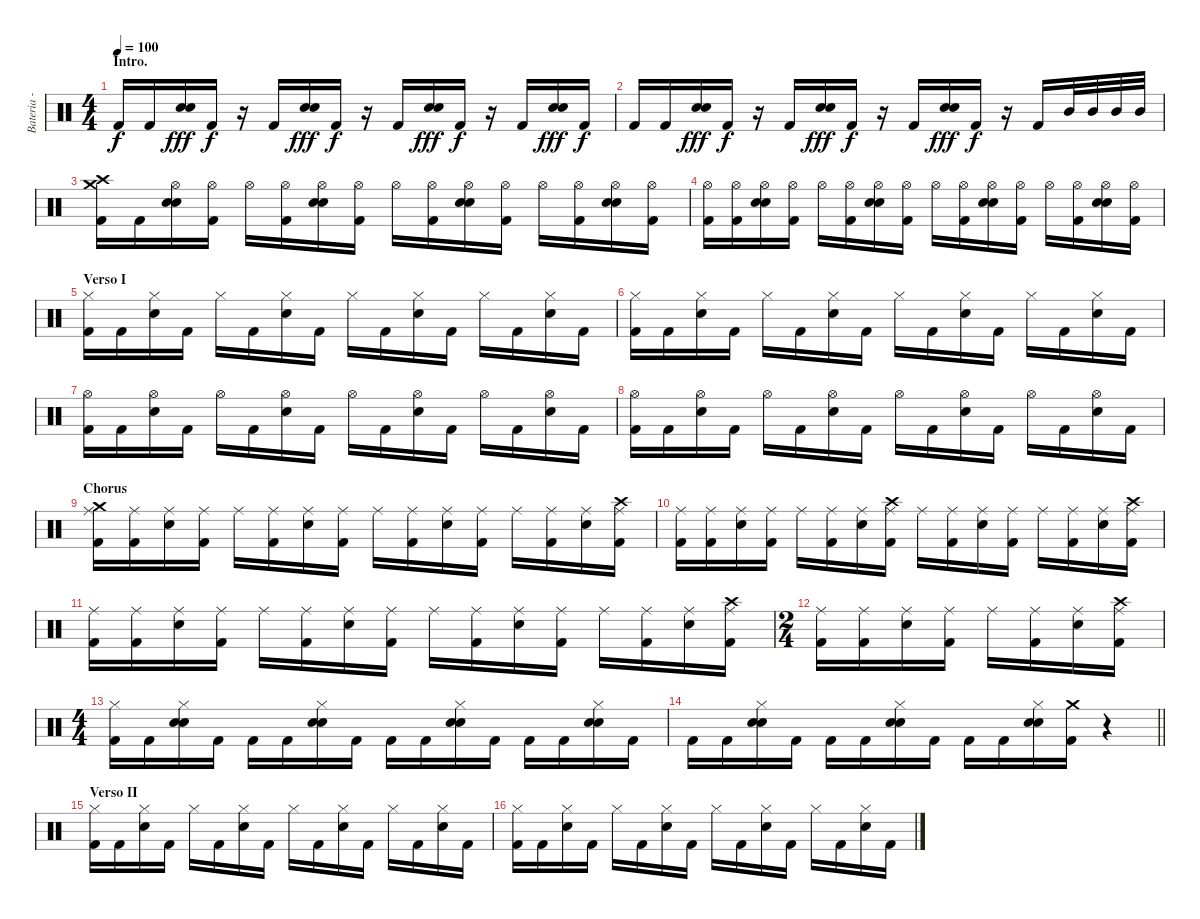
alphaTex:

\track ("Bateria - Frederik Larzon" "Bateria - ") {instrument percussion}
\staff {score}
\articulation defaults
\ts (4 4)
\section ("" "Intro.")
\tempo 100
\clef neutral
\ks c "Kick (hit) 2".16{dy f} "Kick (hit) 2".16
("Snare (hit) 2" "Electric Snare (hit)").16{dy fff} "Kick (hit) 2".16{dy f} r.16 "Kick (hit) 2".16 ("Snare (hit) 2" "Electric Snare (hit)").16{dy fff} "Kick (hit) 2".16{dy f} r.16 "Kick (hit) 2".16 ("Snare (hit) 2" "Electric Snare (hit)").16{dy fff} "Kick (hit) 2".16{dy f} r.16 "Kick (hit) 2".16 ("Snare (hit) 2" "Electric Snare (hit)").16{dy fff} "Kick (hit) 2".16{dy f} |
"Kick (hit) 2".16 "Kick (hit) 2".16 ("Snare (hit) 2" "Electric Snare (hit)").16{dy fff} "Kick (hit) 2".16{dy f} r.16 "Kick (hit) 2".16 ("Snare (hit) 2" "Electric Snare (hit)").16{dy fff} "Kick (hit) 2".16{dy f} r.16 "Kick (hit) 2".16 ("Snare (hit) 2" "Electric Snare (hit)").16{dy fff} "Kick (hit) 2".16{dy f} r.16 "Kick (hit) 2".16 "Mid Tom (hit)".32 "Mid Tom (hit)".32 "Mid Tom (hit)".32 "Mid Tom (hit)".32 |
("Kick (hit) 2" "Crash medium (hit)" "Crash high (hit)").16 "Kick (hit) 2".16 ("Snare (hit) 2" "Electric Snare (hit)" "Hi-Hat (open)").16 ("Kick (hit) 2" "Hi-Hat (open)").16 "Hi-Hat (open)".16 ("Kick (hit) 2" "Hi-Hat (open)").16 ("Snare (hit) 2" "Electric Snare (hit)" "Hi-Hat (open)").16 ("Kick (hit) 2" "Hi-Hat (open)").16 "Hi-Hat (open)".16 ("Kick (hit) 2" "Hi-Hat (open)").16 ("Snare (hit) 2" "Electric Snare (hit)" "Hi-Hat (open)").16 ("Kick (hit) 2" "Hi-Hat (open)").16 "Hi-Hat (open)".16 ("Kick (hit) 2" "Hi-Hat (open)").16 ("Snare (hit) 2" "Electric Snare (hit)" "Hi-Hat (open)").16 ("Kick (hit) 2" "Hi-Hat (open)").16 |
("Kick (hit) 2" "Hi-Hat (open)").16 ("Kick (hit) 2" "Hi-Hat (open)").16 ("Snare (hit) 2" "Electric Snare (hit)" "Hi-Hat (open)").16 ("Kick (hit) 2" "Hi-Hat (open)").16 "Hi-Hat (open)".16 ("Kick (hit) 2" "Hi-Hat (open)").16 ("Snare (hit) 2" "Electric Snare (hit)" "Hi-Hat (open)").16 ("Kick (hit) 2" "Hi-Hat (open)").16 "Hi-Hat (open)".16 ("Kick (hit) 2" "Hi-Hat (open)").16 ("Snare (hit) 2" "Electric Snare (hit)" "Hi-Hat (open)").16 ("Kick (hit) 2" "Hi-Hat (open)").16 "Hi-Hat (open)".16 ("Kick (hit) 2" "Hi-Hat (open)").16 ("Snare (hit) 2" "Electric Snare (hit)" "Hi-Hat (open)").16 ("Kick (hit) 2" "Hi-Hat (open)").16 |
\section ("" "Verso I")
("Kick (hit) 2" "Hi-Hat (closed)").16 "Kick (hit) 2".16 ("Snare (hit) 2" "Hi-Hat (closed)").16 "Kick (hit) 2".16 "Hi-Hat (closed)".16 "Kick (hit) 2".16 ("Snare (hit) 2" "Hi-Hat (closed)").16 "Kick (hit) 2".16 "Hi-Hat (closed)".16 "Kick (hit) 2".16 ("Snare (hit) 2" "Hi-Hat (closed)").16 "Kick (hit) 2".16 "Hi-Hat (closed)".16 "Kick (hit) 2".16 ("Snare (hit) 2" "Hi-Hat (closed)").16 "Kick (hit) 2".16 |
("Kick (hit) 2" "Hi-Hat (closed)").16 "Kick (hit) 2".16 ("Snare (hit) 2" "Hi-Hat (closed)").16 "Kick (hit) 2".16 "Hi-Hat (closed)".16 "Kick (hit) 2".16 ("Snare (hit) 2" "Hi-Hat (closed)").16 "Kick (hit) 2".16 "Hi-Hat (closed)".16 "Kick (hit) 2".16 ("Snare (hit) 2" "Hi-Hat (closed)").16 "Kick (hit) 2".16 "Hi-Hat (closed)".16 "Kick (hit) 2".16 ("Snare (hit) 2" "Hi-Hat (closed)").16 "Kick (hit) 2".16 |
("Kick (hit) 2" "Hi-Hat (open)").16 "Kick (hit) 2".16 ("Snare (hit) 2" "Hi-Hat (open)").16 "Kick (hit) 2".16 "Hi-Hat (open)".16 "Kick (hit) 2".16 ("Snare (hit) 2" "Hi-Hat (open)").16 "Kick (hit) 2".16 "Hi-Hat (open)".16 "Kick (hit) 2".16 ("Snare (hit) 2" "Hi-Hat (open)").16 "Kick (hit) 2".16 "Hi-Hat (open)".16 "Kick (hit) 2".16 ("Snare (hit) 2" "Hi-Hat (open)").16 "Kick (hit) 2".16 |
("Kick (hit) 2" "Hi-Hat (open)").16 "Kick (hit) 2".16 ("Snare (hit) 2" "Hi-Hat (open)").16 "Kick (hit) 2".16 "Hi-Hat (open)".16 "Kick (hit) 2".16 ("Snare (hit) 2" "Hi-Hat (open)").16 "Kick (hit) 2".16 "Hi-Hat (open)".16 "Kick (hit) 2".16 ("Snare (hit) 2" "Hi-Hat (open)").16 "Kick (hit) 2".16 "Hi-Hat (open)".16 "Kick (hit) 2".16 ("Snare (hit) 2" "Hi-Hat (open)").16 "Kick (hit) 2".16 |
\section ("" "Chorus")
("Kick (hit) 2" "Crash medium (hit)" "Ride (middle)").16 ("Kick (hit) 2" "Ride (middle)").16 ("Snare (hit) 2" "Ride (middle)").16 ("Kick (hit) 2" "Ride (middle)").16 "Ride (middle)".16 ("Kick (hit) 2" "Ride (middle)").16 ("Snare (hit) 2" "Ride (middle)").16 ("Kick (hit) 2" "Ride (middle)").16 "Ride (middle)".16 ("Kick (hit) 2" "Ride (middle)").16 ("Snare (hit) 2" "Ride (middle)").16 ("Kick (hit) 2" "Ride (middle)").16 "Ride (middle)".16 ("Kick (hit) 2" "Ride (middle)").16 ("Snare (hit) 2" "Ride (middle)").16 ("Kick (hit) 2" "Crash high (hit)" "Ride (middle)").16 |
("Kick (hit) 2" "Ride (middle)").16 ("Kick (hit) 2" "Ride (middle)").16 ("Snare (hit) 2" "Ride (middle)").16 ("Kick (hit) 2" "Ride (middle)").16 "Ride (middle)".16 ("Kick (hit) 2" "Ride (middle)").16 ("Snare (hit) 2" "Ride (middle)").16 ("Kick (hit) 2" "Crash high (hit)" "Ride (middle)").16 "Ride (middle)".16 ("Kick (hit) 2" "Ride (middle)").16 ("Snare (hit) 2" "Ride (middle)").16 ("Kick (hit) 2" "Ride (middle)").16 "Ride (middle)".16 ("Kick (hit) 2" "Ride (middle)").16 ("Snare (hit) 2" "Ride (middle)").16 ("Kick (hit) 2" "Crash high (hit)" "Ride (middle)").16 |
("Kick (hit) 2" "Ride (middle)").16 ("Kick (hit) 2" "Ride (middle)").16 ("Snare (hit) 2" "Ride (middle)").16 ("Kick (hit) 2" "Ride (middle)").16 "Ride (middle)".16 ("Kick (hit) 2" "Ride (middle)").16 ("Snare (hit) 2" "Ride (middle)").16 ("Kick (hit) 2" "Ride (middle)").16 "Ride (middle)".16 ("Kick (hit) 2" "Ride (middle)").16 ("Snare (hit) 2" "Ride (middle)").16 ("Kick (hit) 2" "Ride (middle)").16 "Ride (middle)".16 ("Kick (hit) 2" "Ride (middle)").16 ("Snare (hit) 2" "Ride (middle)").16 ("Kick (hit) 2" "Crash high (hit)" "Ride (middle)").16 |
\ts (2 4)
("Kick (hit) 2" "Ride (middle)").16 ("Kick (hit) 2" "Ride (middle)").16 ("Snare (hit) 2" "Ride (middle)").16 ("Kick (hit) 2" "Ride (middle)").16 "Ride (middle)".16 ("Kick (hit) 2" "Ride (middle)").16 ("Snare (hit) 2" "Ride (middle)").16 ("Kick (hit) 2" "Crash high (hit)" "Ride (middle)").16 |
\ts (4 4)
("Kick (hit) 2" "Hi-Hat (closed)").16 "Kick (hit) 2".16 ("Snare (hit) 2" "Electric Snare (hit)" "Hi-Hat (closed)").16 "Kick (hit) 2".16 "Kick (hit) 2".16 "Kick (hit) 2".16 ("Snare (hit) 2" "Electric Snare (hit)" "Hi-Hat (closed)").16 "Kick (hit) 2".16 "Kick (hit) 2".16 "Kick (hit) 2".16 ("Snare (hit) 2" "Electric Snare (hit)" "Hi-Hat (closed)").16 "Kick (hit) 2".16 "Kick (hit) 2".16 "Kick (hit) 2".16 ("Snare (hit) 2" "Electric Snare (hit)" "Hi-Hat (closed)").16 "Kick (hit) 2".16 |
\barLineRight lightlight "Kick (hit) 2".16 "Kick (hit) 2".16
("Snare (hit) 2" "Electric Snare (hit)" "Hi-Hat (closed)").16 "Kick (hit) 2".16 "Kick (hit) 2".16 "Kick (hit) 2".16 ("Snare (hit) 2" "Electric Snare (hit)" "Hi-Hat (closed)").16 "Kick (hit) 2".16 "Kick (hit) 2".16 "Kick (hit) 2".16 ("Snare (hit) 2" "Electric Snare (hit)" "Hi-Hat (closed)").16 ("Kick (hit) 2" "Crash medium (hit)").16 r.4 |
\section ("" "Verso II")
("Kick (hit) 2" "Hi-Hat (closed)").16 "Kick (hit) 2".16 ("Snare (hit) 2" "Hi-Hat (closed)").16 "Kick (hit) 2".16 "Hi-Hat (closed)".16 "Kick (hit) 2".16 ("Snare (hit) 2" "Hi-Hat (closed)").16 "Kick (hit) 2".16 "Hi-Hat (closed)".16 "Kick (hit) 2".16 ("Snare (hit) 2" "Hi-Hat (closed)").16 "Kick (hit) 2".16 "Hi-Hat (closed)".16 "Kick (hit) 2".16 ("Snare (hit) 2" "Hi-Hat (closed)").16 "Kick (hit) 2".16 |
("Kick (hit) 2" "Hi-Hat (closed)").16 "Kick (hit) 2".16 ("Snare (hit) 2" "Hi-Hat (closed)").16 "Kick (hit) 2".16 "Hi-Hat (closed)".16 "Kick (hit) 2".16 ("Snare (hit) 2" "Hi-Hat (closed)").16 "Kick (hit) 2".16 "Hi-Hat (closed)".16 "Kick (hit) 2".16 ("Snare (hit) 2" "Hi-Hat (closed)").16 "Kick (hit) 2".16 "Hi-Hat (closed)".16 "Kick (hit) 2".16 ("Snare (hit) 2" "Hi-Hat (closed)").16 "Kick (hit) 2".16
